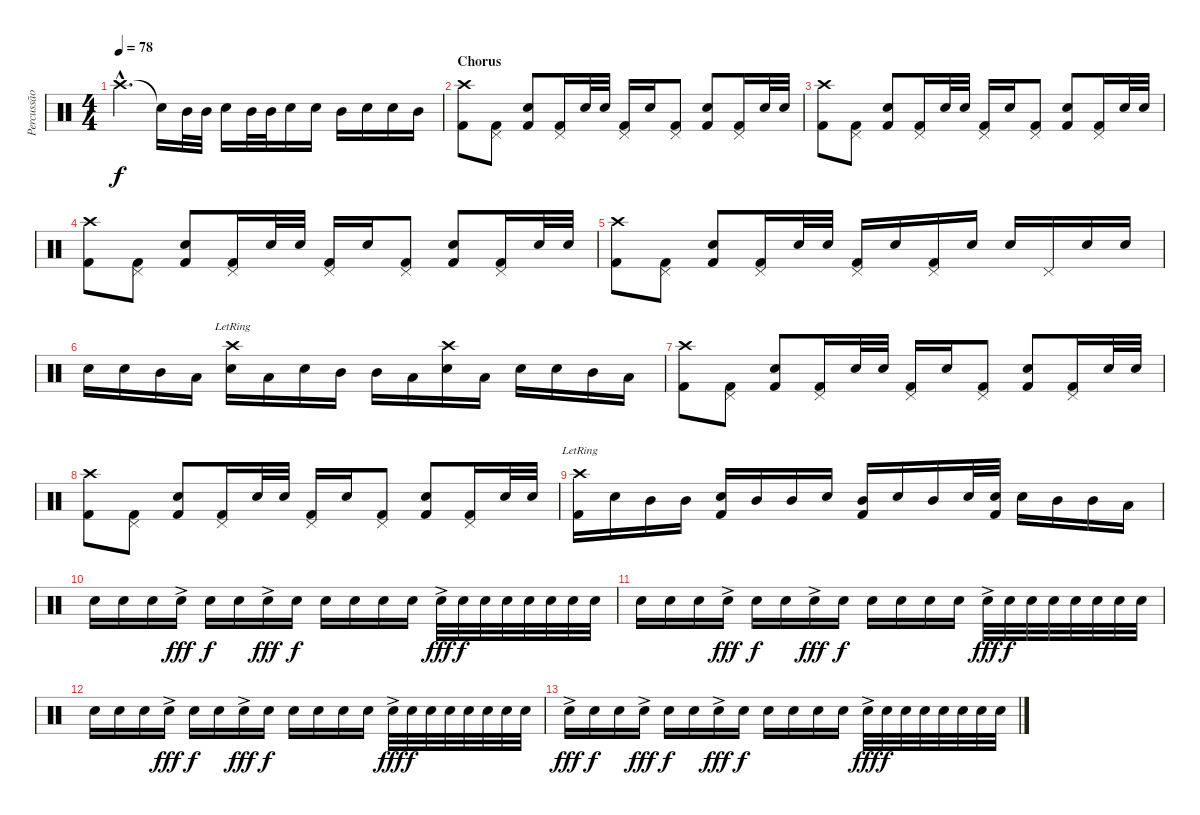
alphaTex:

\track ("Percussão" "Percussão") {instrument percussion}
\staff {score}
\articulation defaults
\ts (4 4)
\tempo 78
\clef neutral
\ks c "Crash high (hit)"{hac}.4{d dy f} "Snare (hit)"{t}.16 "Mid Tom (hit)".32 "Mid Tom (hit)".32 "Electric Snare (hit)".16 "Mid Tom (hit)".32 "Mid Tom (hit)".32 "Electric Snare (hit)".16 "Electric Snare (hit)".16 "Mid Tom (hit)".16 "Electric Snare (hit)".16 "Electric Snare (hit)".16 "Mid Tom (hit)".16
|
\section ("" "Chorus")
("Crash high (hit)" "Kick (hit) 2").8 ("Pedal Hi-Hat (hit)" "Kick (hit) 2").8 ("Electric Snare (hit)" "Kick (hit) 2").8 ("Pedal Hi-Hat (hit)" "Kick (hit) 2").16 "Electric Snare (hit)".32 "Electric Snare (hit)".32 ("Pedal Hi-Hat (hit)" "Kick (hit) 2").16 "Electric Snare (hit)".16 ("Pedal Hi-Hat (hit)" "Kick (hit) 2").8 ("Electric Snare (hit)" "Kick (hit) 2").8 ("Pedal Hi-Hat (hit)" "Kick (hit) 2").16 "Electric Snare (hit)".32 "Electric Snare (hit)".32 |
("Crash high (hit)" "Kick (hit) 2").8 ("Pedal Hi-Hat (hit)" "Kick (hit) 2").8 ("Electric Snare (hit)" "Kick (hit) 2").8 ("Pedal Hi-Hat (hit)" "Kick (hit) 2").16 "Electric Snare (hit)".32 "Electric Snare (hit)".32 ("Pedal Hi-Hat (hit)" "Kick (hit) 2").16 "Electric Snare (hit)".16 ("Pedal Hi-Hat (hit)" "Kick (hit) 2").8 ("Electric Snare (hit)" "Kick (hit) 2").8 ("Pedal Hi-Hat (hit)" "Kick (hit) 2").16 "Electric Snare (hit)".32 "Electric Snare (hit)".32 |
("Crash high (hit)" "Kick (hit) 2").8 ("Pedal Hi-Hat (hit)" "Kick (hit) 2").8 ("Electric Snare (hit)" "Kick (hit) 2").8 ("Pedal Hi-Hat (hit)" "Kick (hit) 2").16 "Electric Snare (hit)".32 "Electric Snare (hit)".32 ("Pedal Hi-Hat (hit)" "Kick (hit) 2").16 "Electric Snare (hit)".16 ("Pedal Hi-Hat (hit)" "Kick (hit) 2").8 ("Electric Snare (hit)" "Kick (hit) 2").8 ("Pedal Hi-Hat (hit)" "Kick (hit) 2").16 "Electric Snare (hit)".32 "Electric Snare (hit)".32 |
("Crash high (hit)" "Kick (hit) 2").8 ("Pedal Hi-Hat (hit)" "Kick (hit) 2").8 ("Electric Snare (hit)" "Kick (hit) 2").8 ("Pedal Hi-Hat (hit)" "Kick (hit) 2").16 "Electric Snare (hit)".32 "Electric Snare (hit)".32 ("Pedal Hi-Hat (hit)" "Kick (hit) 2").16 "Electric Snare (hit)".16 ("Pedal Hi-Hat (hit)" "Kick (hit) 2").16 "Electric Snare (hit)".16 "Electric Snare (hit)".16 "Pedal Hi-Hat (hit)".16 "Electric Snare (hit)".16 "Electric Snare (hit)".16 |
"Electric Snare (hit)".16 "Electric Snare (hit)".16 "Mid Tom (hit)".16 "Low Tom (hit)".16 ("Crash high (hit)"{lr} "Electric Snare (hit)").16 "Low Tom (hit)".16 "Electric Snare (hit)".16 "Mid Tom (hit)".16 "Mid Tom (hit)".16 "Low Tom (hit)".16 ("Crash high (hit)" "Electric Snare (hit)").16 "Low Tom (hit)".16 "Electric Snare (hit)".16 "Electric Snare (hit)".16 "Mid Tom (hit)".16 "Low Tom (hit)".16 |
("Crash high (hit)" "Kick (hit) 2").8 ("Pedal Hi-Hat (hit)" "Kick (hit) 2").8 ("Electric Snare (hit)" "Kick (hit) 2").8 ("Pedal Hi-Hat (hit)" "Kick (hit) 2").16 "Electric Snare (hit)".32 "Electric Snare (hit)".32 ("Pedal Hi-Hat (hit)" "Kick (hit) 2").16 "Electric Snare (hit)".16 ("Pedal Hi-Hat (hit)" "Kick (hit) 2").8 ("Electric Snare (hit)" "Kick (hit) 2").8 ("Pedal Hi-Hat (hit)" "Kick (hit) 2").16 "Electric Snare (hit)".32 "Electric Snare (hit)".32 |
("Crash high (hit)" "Kick (hit) 2").8 ("Pedal Hi-Hat (hit)" "Kick (hit) 2").8 ("Electric Snare (hit)" "Kick (hit) 2").8 ("Pedal Hi-Hat (hit)" "Kick (hit) 2").16 "Electric Snare (hit)".32 "Electric Snare (hit)".32 ("Pedal Hi-Hat (hit)" "Kick (hit) 2").16 "Electric Snare (hit)".16 ("Pedal Hi-Hat (hit)" "Kick (hit) 2").8 ("Electric Snare (hit)" "Kick (hit) 2").8 ("Pedal Hi-Hat (hit)" "Kick (hit) 2").16 "Electric Snare (hit)".32 "Electric Snare (hit)".32 |
("Crash high (hit)"{lr} "Kick (hit) 2").16 "Electric Snare (hit)".16 "Mid Tom (hit)".16 "Mid Tom (hit)".16 ("Electric Snare (hit)" "Kick (hit) 2").16 "Mid Tom (hit)".16 "Mid Tom (hit)".16 "Electric Snare (hit)".16 ("Mid Tom (hit)" "Kick (hit) 2").16 "Electric Snare (hit)".16 "Mid Tom (hit)".16 "Electric Snare (hit)".32 ("Electric Snare (hit)" "Kick (hit) 2").32 "Electric Snare (hit)".16 "Mid Tom (hit)".16 "Mid Tom (hit)".16 "Low Tom (hit)".16 |
"Electric Snare (hit)".16{volume 9} "Electric Snare (hit)".16 "Electric Snare (hit)".16 "Electric Snare (hit)"{ac}.16{dy fff} "Electric Snare (hit)".16{dy f} "Electric Snare (hit)".16 "Electric Snare (hit)"{ac}.16{dy fff} "Electric Snare (hit)".16{dy f} "Electric Snare (hit)".16 "Electric Snare (hit)".16 "Electric Snare (hit)".16 "Electric Snare (hit)".16 "Electric Snare (hit)"{ac}.32{dy fff} "Electric Snare (hit)".32{dy f} "Electric Snare (hit)".32 "Electric Snare (hit)".32 "Electric Snare (hit)".32 "Electric Snare (hit)".32 "Electric Snare (hit)".32 "Electric Snare (hit)".32 |
"Electric Snare (hit)".16 "Electric Snare (hit)".16 "Electric Snare (hit)".16 "Electric Snare (hit)"{ac}.16{dy fff} "Electric Snare (hit)".16{dy f} "Electric Snare (hit)".16 "Electric Snare (hit)"{ac}.16{dy fff} "Electric Snare (hit)".16{dy f} "Electric Snare (hit)".16 "Electric Snare (hit)".16 "Electric Snare (hit)".16 "Electric Snare (hit)".16 "Electric Snare (hit)"{ac}.32{dy fff} "Electric Snare (hit)".32{dy f} "Electric Snare (hit)".32 "Electric Snare (hit)".32 "Electric Snare (hit)".32 "Electric Snare (hit)".32 "Electric Snare (hit)".32 "Electric Snare (hit)".32 |
"Electric Snare (hit)".16 "Electric Snare (hit)".16 "Electric Snare (hit)".16 "Electric Snare (hit)"{ac}.16{dy fff} "Electric Snare (hit)".16{dy f} "Electric Snare (hit)".16 "Electric Snare (hit)"{ac}.16{dy fff} "Electric Snare (hit)".16{dy f} "Electric Snare (hit)".16 "Electric Snare (hit)".16 "Electric Snare (hit)".16 "Electric Snare (hit)".16 "Electric Snare (hit)"{ac}.32{dy fff} "Electric Snare (hit)".32{dy f} "Electric Snare (hit)".32 "Electric Snare (hit)".32 "Electric Snare (hit)".32 "Electric Snare (hit)".32 "Electric Snare (hit)".32 "Electric Snare (hit)".32 |
"Electric Snare (hit)"{ac}.16{dy fff} "Electric Snare (hit)".16{dy f} "Electric Snare (hit)".16 "Electric Snare (hit)"{ac}.16{dy fff} "Electric Snare (hit)".16{dy f} "Electric Snare (hit)".16 "Electric Snare (hit)"{ac}.16{dy fff} "Electric Snare (hit)".16{dy f} "Electric Snare (hit)".16 "Electric Snare (hit)".16 "Electric Snare (hit)".16 "Electric Snare (hit)".16 "Electric Snare (hit)"{ac}.32{dy fff} "Electric Snare (hit)".32{dy f} "Electric Snare (hit)".32 "Electric Snare (hit)".32 "Electric Snare (hit)".32 "Electric Snare (hit)".32 "Electric Snare (hit)".32 "Electric Snare (hit)".32
